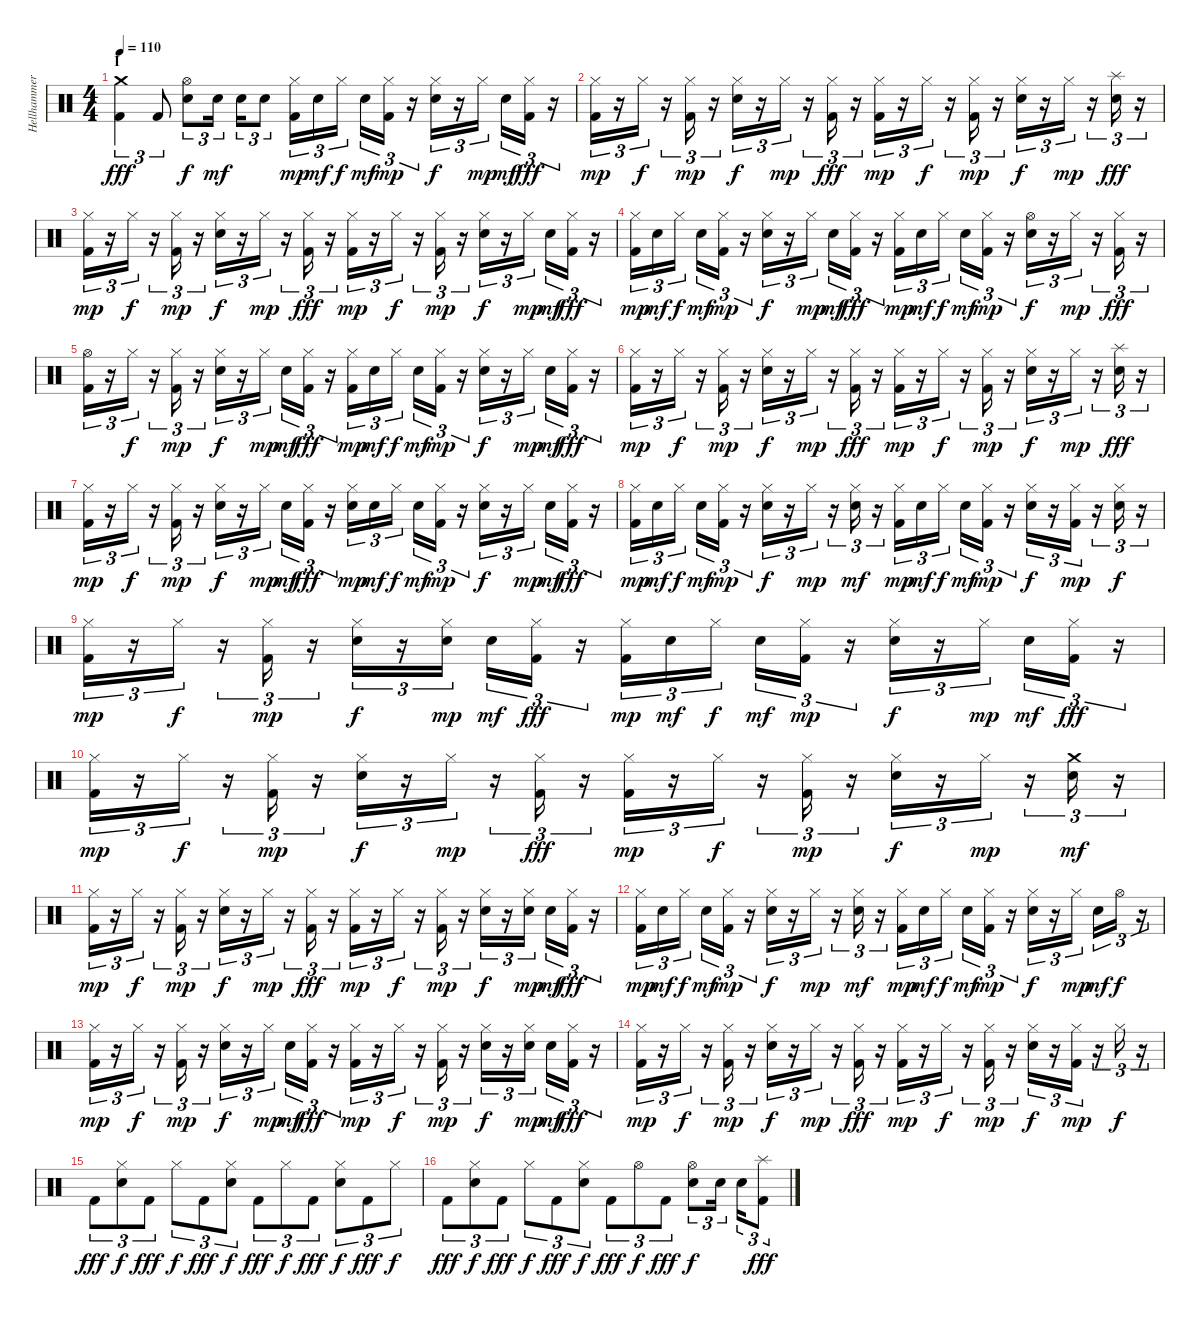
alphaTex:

\track ("Hellhammer" "Hellhammer") {instrument percussion}
\staff {score}
\articulation defaults
\ts (4 4)
\section ("" "I")
\tempo 110
\clef neutral
\ks c
("Kick (hit) 2" "Crash medium (hit)").4{tu (3 2) dy fff} "Kick (hit) 2".8{tu (3 2)} ("Electric Snare (hit)" "Hi-Hat (open)").8{tu (3 2) dy f} "Electric Snare (hit)".16{tu (3 2) dy mf} "Electric Snare (hit)".16{tu (3 2)} "Electric Snare (hit)".8{tu (3 2)} ("Kick (hit) 2" "Hi-Hat (closed)").16{tu (3 2) dy mp} "Electric Snare (hit)".16{tu (3 2) dy mf} "Hi-Hat (closed)".16{tu (3 2) dy f} "Electric Snare (hit)".16{tu (3 2) dy mf} ("Kick (hit) 2" "Hi-Hat (closed)").16{tu (3 2) dy mp} r.16{tu (3 2)} ("Electric Snare (hit)" "Hi-Hat (closed)").16{tu (3 2) dy f} r.16{tu (3 2)} "Hi-Hat (closed)".16{tu (3 2) dy mp} "Electric Snare (hit)".16{tu (3 2) dy mf} ("Kick (hit) 2" "Hi-Hat (closed)").16{tu (3 2) dy fff} r.16{tu (3 2)} |
("Kick (hit) 2" "Hi-Hat (closed)").16{tu (3 2) dy mp} r.16{tu (3 2)} "Hi-Hat (closed)".16{tu (3 2) dy f} r.16{tu (3 2)} ("Kick (hit) 2" "Hi-Hat (closed)").16{tu (3 2) dy mp} r.16{tu (3 2)} ("Electric Snare (hit)" "Hi-Hat (closed)").16{tu (3 2) dy f} r.16{tu (3 2)} "Hi-Hat (closed)".16{tu (3 2) dy mp} r.16{tu (3 2)} ("Kick (hit) 2" "Hi-Hat (closed)").16{tu (3 2) dy fff} r.16{tu (3 2)} ("Kick (hit) 2" "Hi-Hat (closed)").16{tu (3 2) dy mp} r.16{tu (3 2)} "Hi-Hat (closed)".16{tu (3 2) dy f} r.16{tu (3 2)} ("Kick (hit) 2" "Hi-Hat (closed)").16{tu (3 2) dy mp} r.16{tu (3 2)} ("Electric Snare (hit)" "Hi-Hat (closed)").16{tu (3 2) dy f} r.16{tu (3 2)} "Hi-Hat (closed)".16{tu (3 2) dy mp} r.16{tu (3 2)} ("Electric Snare (hit)" "Splash (hit)").16{tu (3 2) dy fff} r.16{tu (3 2)} |
("Kick (hit) 2" "Hi-Hat (closed)").16{tu (3 2) dy mp} r.16{tu (3 2)} "Hi-Hat (closed)".16{tu (3 2) dy f} r.16{tu (3 2)} ("Kick (hit) 2" "Hi-Hat (closed)").16{tu (3 2) dy mp} r.16{tu (3 2)} ("Electric Snare (hit)" "Hi-Hat (closed)").16{tu (3 2) dy f} r.16{tu (3 2)} "Hi-Hat (closed)".16{tu (3 2) dy mp} r.16{tu (3 2)} ("Kick (hit) 2" "Hi-Hat (closed)").16{tu (3 2) dy fff} r.16{tu (3 2)} ("Kick (hit) 2" "Hi-Hat (closed)").16{tu (3 2) dy mp} r.16{tu (3 2)} "Hi-Hat (closed)".16{tu (3 2) dy f} r.16{tu (3 2)} ("Kick (hit) 2" "Hi-Hat (closed)").16{tu (3 2) dy mp} r.16{tu (3 2)} ("Electric Snare (hit)" "Hi-Hat (closed)").16{tu (3 2) dy f} r.16{tu (3 2)} "Hi-Hat (closed)".16{tu (3 2) dy mp} "Electric Snare (hit)".16{tu (3 2) dy mf} ("Kick (hit) 2" "Hi-Hat (closed)").16{tu (3 2) dy fff} r.16{tu (3 2)} |
("Kick (hit) 2" "Hi-Hat (closed)").16{tu (3 2) dy mp} "Electric Snare (hit)".16{tu (3 2) dy mf} "Hi-Hat (closed)".16{tu (3 2) dy f} "Electric Snare (hit)".16{tu (3 2) dy mf} ("Kick (hit) 2" "Hi-Hat (closed)").16{tu (3 2) dy mp} r.16{tu (3 2)} ("Electric Snare (hit)" "Hi-Hat (closed)").16{tu (3 2) dy f} r.16{tu (3 2)} "Hi-Hat (closed)".16{tu (3 2) dy mp} "Electric Snare (hit)".16{tu (3 2) dy mf} ("Kick (hit) 2" "Hi-Hat (closed)").16{tu (3 2) dy fff} r.16{tu (3 2)} ("Kick (hit) 2" "Hi-Hat (closed)").16{tu (3 2) dy mp} "Electric Snare (hit)".16{tu (3 2) dy mf} "Hi-Hat (closed)".16{tu (3 2) dy f} "Electric Snare (hit)".16{tu (3 2) dy mf} ("Kick (hit) 2" "Hi-Hat (closed)").16{tu (3 2) dy mp} r.16{tu (3 2)} ("Electric Snare (hit)" "Hi-Hat (open)").16{tu (3 2) dy f} r.16{tu (3 2)} "Hi-Hat (closed)".16{tu (3 2) dy mp} r.16{tu (3 2)} ("Kick (hit) 2" "Hi-Hat (closed)").16{tu (3 2) dy fff} r.16{tu (3 2)} |
("Kick (hit) 2" "Hi-Hat (open)").16{tu (3 2)} r.16{tu (3 2)} "Hi-Hat (closed)".16{tu (3 2) dy f} r.16{tu (3 2)} ("Kick (hit) 2" "Hi-Hat (closed)").16{tu (3 2) dy mp} r.16{tu (3 2)} ("Electric Snare (hit)" "Hi-Hat (closed)").16{tu (3 2) dy f} r.16{tu (3 2)} "Hi-Hat (closed)".16{tu (3 2) dy mp} "Electric Snare (hit)".16{tu (3 2) dy mf} ("Kick (hit) 2" "Hi-Hat (closed)").16{tu (3 2) dy fff} r.16{tu (3 2)} ("Kick (hit) 2" "Hi-Hat (closed)").16{tu (3 2) dy mp} "Electric Snare (hit)".16{tu (3 2) dy mf} "Hi-Hat (closed)".16{tu (3 2) dy f} "Electric Snare (hit)".16{tu (3 2) dy mf} ("Kick (hit) 2" "Hi-Hat (closed)").16{tu (3 2) dy mp} r.16{tu (3 2)} ("Electric Snare (hit)" "Hi-Hat (closed)").16{tu (3 2) dy f} r.16{tu (3 2)} "Hi-Hat (closed)".16{tu (3 2) dy mp} "Electric Snare (hit)".16{tu (3 2) dy mf} ("Kick (hit) 2" "Hi-Hat (closed)").16{tu (3 2) dy fff} r.16{tu (3 2)} |
("Kick (hit) 2" "Hi-Hat (closed)").16{tu (3 2) dy mp} r.16{tu (3 2)} "Hi-Hat (closed)".16{tu (3 2) dy f} r.16{tu (3 2)} ("Kick (hit) 2" "Hi-Hat (closed)").16{tu (3 2) dy mp} r.16{tu (3 2)} ("Electric Snare (hit)" "Hi-Hat (closed)").16{tu (3 2) dy f} r.16{tu (3 2)} "Hi-Hat (closed)".16{tu (3 2) dy mp} r.16{tu (3 2)} ("Kick (hit) 2" "Hi-Hat (closed)").16{tu (3 2) dy fff} r.16{tu (3 2)} ("Kick (hit) 2" "Hi-Hat (closed)").16{tu (3 2) dy mp} r.16{tu (3 2)} "Hi-Hat (closed)".16{tu (3 2) dy f} r.16{tu (3 2)} ("Kick (hit) 2" "Hi-Hat (closed)").16{tu (3 2) dy mp} r.16{tu (3 2)} ("Electric Snare (hit)" "Hi-Hat (closed)").16{tu (3 2) dy f} r.16{tu (3 2)} "Hi-Hat (closed)".16{tu (3 2) dy mp} r.16{tu (3 2)} ("Electric Snare (hit)" "Splash (hit)").16{tu (3 2) dy fff} r.16{tu (3 2)} |
("Kick (hit) 2" "Hi-Hat (closed)").16{tu (3 2) dy mp} r.16{tu (3 2)} "Hi-Hat (closed)".16{tu (3 2) dy f} r.16{tu (3 2)} ("Kick (hit) 2" "Hi-Hat (closed)").16{tu (3 2) dy mp} r.16{tu (3 2)} ("Electric Snare (hit)" "Hi-Hat (closed)").16{tu (3 2) dy f} r.16{tu (3 2)} "Hi-Hat (closed)".16{tu (3 2) dy mp} "Electric Snare (hit)".16{tu (3 2) dy mf} ("Kick (hit) 2" "Hi-Hat (closed)").16{tu (3 2) dy fff} r.16{tu (3 2)} ("Electric Snare (hit)" "Hi-Hat (closed)").16{tu (3 2) dy mp} "Electric Snare (hit)".16{tu (3 2) dy mf} "Hi-Hat (closed)".16{tu (3 2) dy f} "Electric Snare (hit)".16{tu (3 2) dy mf} ("Kick (hit) 2" "Hi-Hat (closed)").16{tu (3 2) dy mp} r.16{tu (3 2)} ("Electric Snare (hit)" "Hi-Hat (closed)").16{tu (3 2) dy f} r.16{tu (3 2)} "Hi-Hat (closed)".16{tu (3 2) dy mp} "Electric Snare (hit)".16{tu (3 2) dy mf} ("Kick (hit) 2" "Hi-Hat (closed)").16{tu (3 2) dy fff} r.16{tu (3 2)} |
("Kick (hit) 2" "Hi-Hat (closed)").16{tu (3 2) dy mp} "Electric Snare (hit)".16{tu (3 2) dy mf} "Hi-Hat (closed)".16{tu (3 2) dy f} "Electric Snare (hit)".16{tu (3 2) dy mf} ("Kick (hit) 2" "Hi-Hat (closed)").16{tu (3 2) dy mp} r.16{tu (3 2)} ("Electric Snare (hit)" "Hi-Hat (closed)").16{tu (3 2) dy f} r.16{tu (3 2)} "Hi-Hat (closed)".16{tu (3 2) dy mp} r.16{tu (3 2)} ("Electric Snare (hit)" "Hi-Hat (closed)").16{tu (3 2) dy mf} r.16{tu (3 2)} ("Kick (hit) 2" "Hi-Hat (closed)").16{tu (3 2) dy mp} "Electric Snare (hit)".16{tu (3 2) dy mf} "Hi-Hat (closed)".16{tu (3 2) dy f} "Electric Snare (hit)".16{tu (3 2) dy mf} ("Kick (hit) 2" "Hi-Hat (closed)").16{tu (3 2) dy mp} r.16{tu (3 2)} ("Electric Snare (hit)" "Hi-Hat (closed)").16{tu (3 2) dy f} r.16{tu (3 2)} ("Kick (hit) 2" "Hi-Hat (closed)").16{tu (3 2) dy mp} r.16{tu (3 2)} ("Electric Snare (hit)" "Hi-Hat (closed)").16{tu (3 2) dy f} r.16{tu (3 2)} |
("Kick (hit) 2" "Hi-Hat (closed)").16{tu (3 2) dy mp} r.16{tu (3 2)} "Hi-Hat (closed)".16{tu (3 2) dy f} r.16{tu (3 2)} ("Kick (hit) 2" "Hi-Hat (closed)").16{tu (3 2) dy mp} r.16{tu (3 2)} ("Electric Snare (hit)" "Hi-Hat (closed)").16{tu (3 2) dy f} r.16{tu (3 2)} ("Electric Snare (hit)" "Hi-Hat (closed)").16{tu (3 2) dy mp} "Electric Snare (hit)".16{tu (3 2) dy mf} ("Kick (hit) 2" "Hi-Hat (closed)").16{tu (3 2) dy fff} r.16{tu (3 2)} ("Kick (hit) 2" "Hi-Hat (closed)").16{tu (3 2) dy mp} "Electric Snare (hit)".16{tu (3 2) dy mf} "Hi-Hat (closed)".16{tu (3 2) dy f} "Electric Snare (hit)".16{tu (3 2) dy mf} ("Kick (hit) 2" "Hi-Hat (closed)").16{tu (3 2) dy mp} r.16{tu (3 2)} ("Electric Snare (hit)" "Hi-Hat (closed)").16{tu (3 2) dy f} r.16{tu (3 2)} "Hi-Hat (closed)".16{tu (3 2) dy mp} "Electric Snare (hit)".16{tu (3 2) dy mf} ("Kick (hit) 2" "Hi-Hat (closed)").16{tu (3 2) dy fff} r.16{tu (3 2)} |
("Kick (hit) 2" "Hi-Hat (closed)").16{tu (3 2) dy mp} r.16{tu (3 2)} "Hi-Hat (closed)".16{tu (3 2) dy f} r.16{tu (3 2)} ("Kick (hit) 2" "Hi-Hat (closed)").16{tu (3 2) dy mp} r.16{tu (3 2)} ("Electric Snare (hit)" "Hi-Hat (closed)").16{tu (3 2) dy f} r.16{tu (3 2)} "Hi-Hat (closed)".16{tu (3 2) dy mp} r.16{tu (3 2)} ("Kick (hit) 2" "Hi-Hat (closed)").16{tu (3 2) dy fff} r.16{tu (3 2)} ("Kick (hit) 2" "Hi-Hat (closed)").16{tu (3 2) dy mp} r.16{tu (3 2)} "Hi-Hat (closed)".16{tu (3 2) dy f} r.16{tu (3 2)} ("Kick (hit) 2" "Hi-Hat (closed)").16{tu (3 2) dy mp} r.16{tu (3 2)} ("Electric Snare (hit)" "Hi-Hat (closed)").16{tu (3 2) dy f} r.16{tu (3 2)} "Hi-Hat (closed)".16{tu (3 2) dy mp} r.16{tu (3 2)} ("Electric Snare (hit)" "Crash medium (hit)").16{tu (3 2) dy mf} r.16{tu (3 2)} |
("Kick (hit) 2" "Hi-Hat (closed)").16{tu (3 2) dy mp} r.16{tu (3 2)} "Hi-Hat (closed)".16{tu (3 2) dy f} r.16{tu (3 2)} ("Kick (hit) 2" "Hi-Hat (closed)").16{tu (3 2) dy mp} r.16{tu (3 2)} ("Electric Snare (hit)" "Hi-Hat (closed)").16{tu (3 2) dy f} r.16{tu (3 2)} "Hi-Hat (closed)".16{tu (3 2) dy mp} r.16{tu (3 2)} ("Kick (hit) 2" "Hi-Hat (closed)").16{tu (3 2) dy fff} r.16{tu (3 2)} ("Kick (hit) 2" "Hi-Hat (closed)").16{tu (3 2) dy mp} r.16{tu (3 2)} "Hi-Hat (closed)".16{tu (3 2) dy f} r.16{tu (3 2)} ("Kick (hit) 2" "Hi-Hat (closed)").16{tu (3 2) dy mp} r.16{tu (3 2)} ("Electric Snare (hit)" "Hi-Hat (closed)").16{tu (3 2) dy f} r.16{tu (3 2)} ("Electric Snare (hit)" "Hi-Hat (closed)").16{tu (3 2) dy mp} "Electric Snare (hit)".16{tu (3 2) dy mf} ("Kick (hit) 2" "Hi-Hat (closed)").16{tu (3 2) dy fff} r.16{tu (3 2)} |
("Kick (hit) 2" "Hi-Hat (closed)").16{tu (3 2) dy mp} "Electric Snare (hit)".16{tu (3 2) dy mf} "Hi-Hat (closed)".16{tu (3 2) dy f} "Electric Snare (hit)".16{tu (3 2) dy mf} ("Kick (hit) 2" "Hi-Hat (closed)").16{tu (3 2) dy mp} r.16{tu (3 2)} ("Electric Snare (hit)" "Hi-Hat (closed)").16{tu (3 2) dy f} r.16{tu (3 2)} "Hi-Hat (closed)".16{tu (3 2) dy mp} r.16{tu (3 2)} ("Electric Snare (hit)" "Hi-Hat (closed)").16{tu (3 2) dy mf} r.16{tu (3 2)} ("Kick (hit) 2" "Hi-Hat (closed)").16{tu (3 2) dy mp} "Electric Snare (hit)".16{tu (3 2) dy mf} "Hi-Hat (closed)".16{tu (3 2) dy f} "Electric Snare (hit)".16{tu (3 2) dy mf} ("Kick (hit) 2" "Hi-Hat (closed)").16{tu (3 2) dy mp} r.16{tu (3 2)} ("Electric Snare (hit)" "Hi-Hat (closed)").16{tu (3 2) dy f} r.16{tu (3 2)} "Hi-Hat (closed)".16{tu (3 2) dy mp} "Electric Snare (hit)".16{tu (3 2) dy mf} "Hi-Hat (open)".16{tu (3 2) dy f} r.16{tu (3 2)} |
("Kick (hit) 2" "Hi-Hat (closed)").16{tu (3 2) dy mp} r.16{tu (3 2)} "Hi-Hat (closed)".16{tu (3 2) dy f} r.16{tu (3 2)} ("Kick (hit) 2" "Hi-Hat (closed)").16{tu (3 2) dy mp} r.16{tu (3 2)} ("Electric Snare (hit)" "Hi-Hat (closed)").16{tu (3 2) dy f} r.16{tu (3 2)} "Hi-Hat (closed)".16{tu (3 2) dy mp} "Electric Snare (hit)".16{tu (3 2) dy mf} ("Kick (hit) 2" "Hi-Hat (closed)").16{tu (3 2) dy fff} r.16{tu (3 2)} ("Kick (hit) 2" "Hi-Hat (closed)").16{tu (3 2) dy mp} r.16{tu (3 2)} "Hi-Hat (closed)".16{tu (3 2) dy f} r.16{tu (3 2)} ("Kick (hit) 2" "Hi-Hat (closed)").16{tu (3 2) dy mp} r.16{tu (3 2)} ("Electric Snare (hit)" "Hi-Hat (closed)").16{tu (3 2) dy f} r.16{tu (3 2)} ("Electric Snare (hit)" "Hi-Hat (closed)").16{tu (3 2) dy mp} "Electric Snare (hit)".16{tu (3 2) dy mf} ("Kick (hit) 2" "Hi-Hat (closed)").16{tu (3 2) dy fff} r.16{tu (3 2)} |
("Kick (hit) 2" "Hi-Hat (closed)").16{tu (3 2) dy mp} r.16{tu (3 2)} "Hi-Hat (closed)".16{tu (3 2) dy f} r.16{tu (3 2)} ("Kick (hit) 2" "Hi-Hat (closed)").16{tu (3 2) dy mp} r.16{tu (3 2)} ("Electric Snare (hit)" "Hi-Hat (closed)").16{tu (3 2) dy f} r.16{tu (3 2)} "Hi-Hat (closed)".16{tu (3 2) dy mp} r.16{tu (3 2)} ("Kick (hit) 2" "Hi-Hat (closed)").16{tu (3 2) dy fff} r.16{tu (3 2)} ("Kick (hit) 2" "Hi-Hat (closed)").16{tu (3 2) dy mp} r.16{tu (3 2)} "Hi-Hat (closed)".16{tu (3 2) dy f} r.16{tu (3 2)} ("Kick (hit) 2" "Hi-Hat (closed)").16{tu (3 2) dy mp} r.16{tu (3 2)} ("Electric Snare (hit)" "Hi-Hat (closed)").16{tu (3 2) dy f} r.16{tu (3 2)} ("Kick (hit) 2" "Hi-Hat (closed)").16{tu (3 2) dy mp} r.16{tu (3 2)} "Hi-Hat (closed)".16{tu (3 2) dy f} r.16{tu (3 2)} |
"Kick (hit) 2".8{tu (3 2) dy fff} ("Electric Snare (hit)" "Hi-Hat (closed)").8{tu (3 2) dy f} "Kick (hit) 2".8{tu (3 2) dy fff} "Hi-Hat (closed)".8{tu (3 2) dy f} "Kick (hit) 2".8{tu (3 2) dy fff} ("Electric Snare (hit)" "Hi-Hat (closed)").8{tu (3 2) dy f} "Kick (hit) 2".8{tu (3 2) dy fff} "Hi-Hat (closed)".8{tu (3 2) dy f} "Kick (hit) 2".8{tu (3 2) dy fff} ("Electric Snare (hit)" "Hi-Hat (closed)").8{tu (3 2) dy f} "Kick (hit) 2".8{tu (3 2) dy fff} "Hi-Hat (closed)".8{tu (3 2) dy f} |
"Kick (hit) 2".8{tu (3 2) dy fff} ("Electric Snare (hit)" "Hi-Hat (closed)").8{tu (3 2) dy f} "Kick (hit) 2".8{tu (3 2) dy fff} "Hi-Hat (closed)".8{tu (3 2) dy f} "Kick (hit) 2".8{tu (3 2) dy fff} ("Electric Snare (hit)" "Hi-Hat (closed)").8{tu (3 2) dy f} "Kick (hit) 2".8{tu (3 2) dy fff} "Hi-Hat (open)".8{tu (3 2) dy f} "Kick (hit) 2".8{tu (3 2) dy fff} ("Electric Snare (hit)" "Hi-Hat (open)").8{tu (3 2) dy f} "Electric Snare (hit)".16{tu (3 2)} "Electric Snare (hit)".16{tu (3 2)} ("Kick (hit) 2" "Splash (hit)").8{tu (3 2) dy fff}
